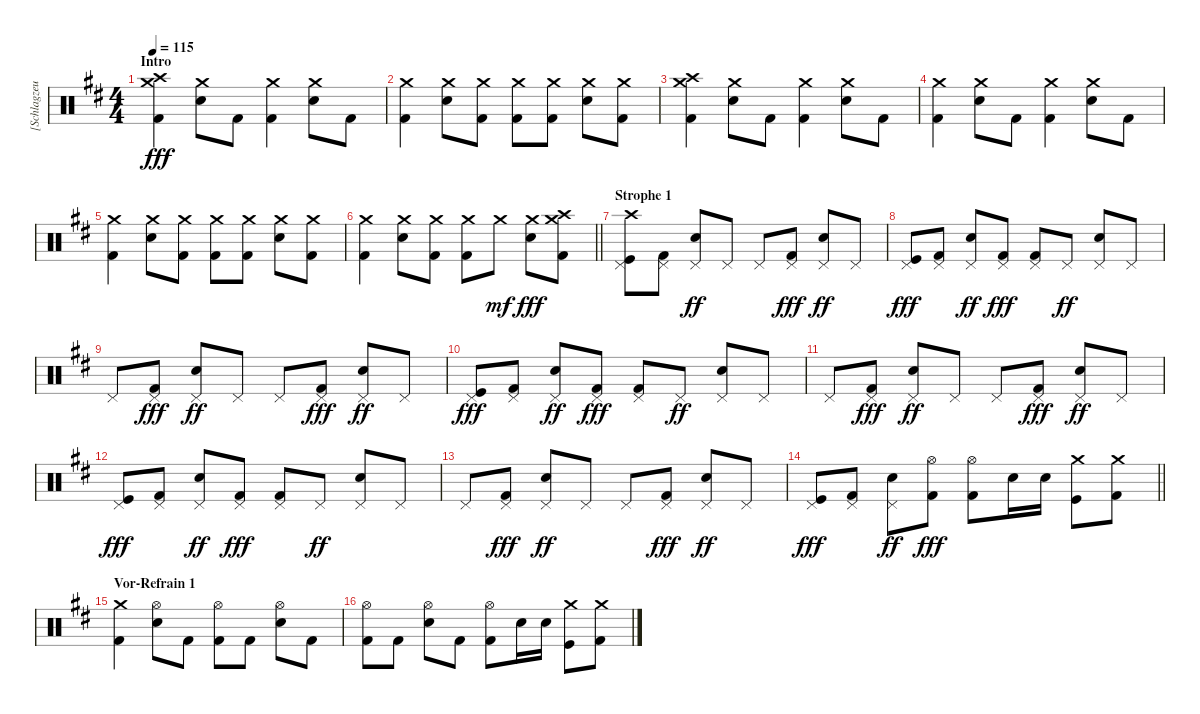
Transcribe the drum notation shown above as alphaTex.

\track ("[Schlagzeug]" "[Schlagzeu") {instrument percussion}
\staff {score}
\articulation defaults
\ts (4 4)
\section ("" "Intro")
\tempo 115
\clef neutral
\ks bminor
("Crash medium (hit)" "Crash high (hit)" "Kick (hit) 2").4{dy fff} ("Crash medium (hit)" "Electric Snare (hit)").8 "Kick (hit) 2".8 ("Crash medium (hit)" "Kick (hit) 2").4 ("Crash medium (hit)" "Electric Snare (hit)").8 "Kick (hit) 2".8 |
("Crash medium (hit)" "Kick (hit) 2").4 ("Crash medium (hit)" "Electric Snare (hit)").8 ("Crash medium (hit)" "Kick (hit) 2").8 ("Crash medium (hit)" "Kick (hit) 2").8 ("Crash medium (hit)" "Kick (hit) 2").8 ("Crash medium (hit)" "Electric Snare (hit)").8 ("Crash medium (hit)" "Kick (hit) 2").8 |
("Crash medium (hit)" "Crash high (hit)" "Kick (hit) 2").4 ("Crash medium (hit)" "Electric Snare (hit)").8 "Kick (hit) 2".8 ("Crash medium (hit)" "Kick (hit) 2").4 ("Crash medium (hit)" "Electric Snare (hit)").8 "Kick (hit) 2".8 |
("Crash medium (hit)" "Kick (hit) 2").4 ("Crash medium (hit)" "Electric Snare (hit)").8 "Kick (hit) 2".8 ("Crash medium (hit)" "Kick (hit) 2").4 ("Crash medium (hit)" "Electric Snare (hit)").8 "Kick (hit) 2".8 |
("Crash medium (hit)" "Kick (hit) 2").4 ("Crash medium (hit)" "Electric Snare (hit)").8 ("Crash medium (hit)" "Kick (hit) 2").8 ("Crash medium (hit)" "Kick (hit) 2").8 ("Crash medium (hit)" "Kick (hit) 2").8 ("Crash medium (hit)" "Electric Snare (hit)").8 ("Crash medium (hit)" "Kick (hit) 2").8 |
\barLineRight lightlight
("Crash medium (hit)" "Kick (hit) 2").4 ("Crash medium (hit)" "Electric Snare (hit)").8 ("Crash medium (hit)" "Kick (hit) 2").8 ("Crash medium (hit)" "Kick (hit) 2").8 "Crash medium (hit)".8{dy mf} ("Crash medium (hit)" "Electric Snare (hit)").8{dy fff} ("Crash medium (hit)" "Crash high (hit)" "Kick (hit) 2").8 |
\section ("" "Strophe 1")
("Crash high (hit)" "Pedal Hi-Hat (hit)" "Kick (hit)").8 ("Pedal Hi-Hat (hit)" "Kick (hit) 2").8 ("Electric Snare (hit)" "Pedal Hi-Hat (hit)").8{dy ff} "Pedal Hi-Hat (hit)".8 "Pedal Hi-Hat (hit)".8 ("Pedal Hi-Hat (hit)" "Kick (hit) 2").8{dy fff} ("Electric Snare (hit)" "Pedal Hi-Hat (hit)").8{dy ff} "Pedal Hi-Hat (hit)".8 |
("Pedal Hi-Hat (hit)" "Kick (hit)").8{dy fff} ("Pedal Hi-Hat (hit)" "Kick (hit) 2").8 ("Electric Snare (hit)" "Pedal Hi-Hat (hit)").8{dy ff} ("Pedal Hi-Hat (hit)" "Kick (hit) 2").8{dy fff} ("Pedal Hi-Hat (hit)" "Kick (hit) 2").8 "Pedal Hi-Hat (hit)".8{dy ff} ("Electric Snare (hit)" "Pedal Hi-Hat (hit)").8 "Pedal Hi-Hat (hit)".8 |
"Pedal Hi-Hat (hit)".8 ("Pedal Hi-Hat (hit)" "Kick (hit) 2").8{dy fff} ("Electric Snare (hit)" "Pedal Hi-Hat (hit)").8{dy ff} "Pedal Hi-Hat (hit)".8 "Pedal Hi-Hat (hit)".8 ("Pedal Hi-Hat (hit)" "Kick (hit) 2").8{dy fff} ("Electric Snare (hit)" "Pedal Hi-Hat (hit)").8{dy ff} "Pedal Hi-Hat (hit)".8 |
("Pedal Hi-Hat (hit)" "Kick (hit)").8{dy fff} ("Pedal Hi-Hat (hit)" "Kick (hit) 2").8 ("Electric Snare (hit)" "Pedal Hi-Hat (hit)").8{dy ff} ("Pedal Hi-Hat (hit)" "Kick (hit) 2").8{dy fff} ("Pedal Hi-Hat (hit)" "Kick (hit) 2").8 "Pedal Hi-Hat (hit)".8{dy ff} ("Electric Snare (hit)" "Pedal Hi-Hat (hit)").8 "Pedal Hi-Hat (hit)".8 |
"Pedal Hi-Hat (hit)".8 ("Pedal Hi-Hat (hit)" "Kick (hit) 2").8{dy fff} ("Electric Snare (hit)" "Pedal Hi-Hat (hit)").8{dy ff} "Pedal Hi-Hat (hit)".8 "Pedal Hi-Hat (hit)".8 ("Pedal Hi-Hat (hit)" "Kick (hit) 2").8{dy fff} ("Electric Snare (hit)" "Pedal Hi-Hat (hit)").8{dy ff} "Pedal Hi-Hat (hit)".8 |
("Pedal Hi-Hat (hit)" "Kick (hit)").8{dy fff} ("Pedal Hi-Hat (hit)" "Kick (hit) 2").8 ("Electric Snare (hit)" "Pedal Hi-Hat (hit)").8{dy ff} ("Pedal Hi-Hat (hit)" "Kick (hit) 2").8{dy fff} ("Pedal Hi-Hat (hit)" "Kick (hit) 2").8 "Pedal Hi-Hat (hit)".8{dy ff} ("Electric Snare (hit)" "Pedal Hi-Hat (hit)").8 "Pedal Hi-Hat (hit)".8 |
"Pedal Hi-Hat (hit)".8 ("Pedal Hi-Hat (hit)" "Kick (hit) 2").8{dy fff} ("Electric Snare (hit)" "Pedal Hi-Hat (hit)").8{dy ff} "Pedal Hi-Hat (hit)".8 "Pedal Hi-Hat (hit)".8 ("Pedal Hi-Hat (hit)" "Kick (hit) 2").8{dy fff} ("Electric Snare (hit)" "Pedal Hi-Hat (hit)").8{dy ff} "Pedal Hi-Hat (hit)".8 |
\barLineRight lightlight
("Pedal Hi-Hat (hit)" "Kick (hit)").8{dy fff} ("Pedal Hi-Hat (hit)" "Kick (hit) 2").8 ("Electric Snare (hit)" "Pedal Hi-Hat (hit)").8{dy ff} ("Hi-Hat (open)" "Kick (hit) 2").8{dy fff} ("Hi-Hat (open)" "Kick (hit) 2").8 "Electric Snare (hit)".16 "Electric Snare (hit)".16 ("Crash medium (hit)" "Kick (hit)").8 ("Crash medium (hit)" "Kick (hit) 2").8 |
\section ("" "Vor-Refrain 1")
("Crash medium (hit)" "Kick (hit) 2").4 ("Electric Snare (hit)" "Hi-Hat (open)").8 "Kick (hit) 2".8 ("Hi-Hat (open)" "Kick (hit) 2").8 "Kick (hit) 2".8 ("Electric Snare (hit)" "Hi-Hat (open)").8 "Kick (hit) 2".8 |
("Hi-Hat (open)" "Kick (hit) 2").8 "Kick (hit) 2".8 ("Electric Snare (hit)" "Hi-Hat (open)").8 "Kick (hit) 2".8 ("Hi-Hat (open)" "Kick (hit) 2").8 "Electric Snare (hit)".16 "Electric Snare (hit)".16 ("Crash medium (hit)" "Kick (hit)").8 ("Crash medium (hit)" "Kick (hit) 2").8
